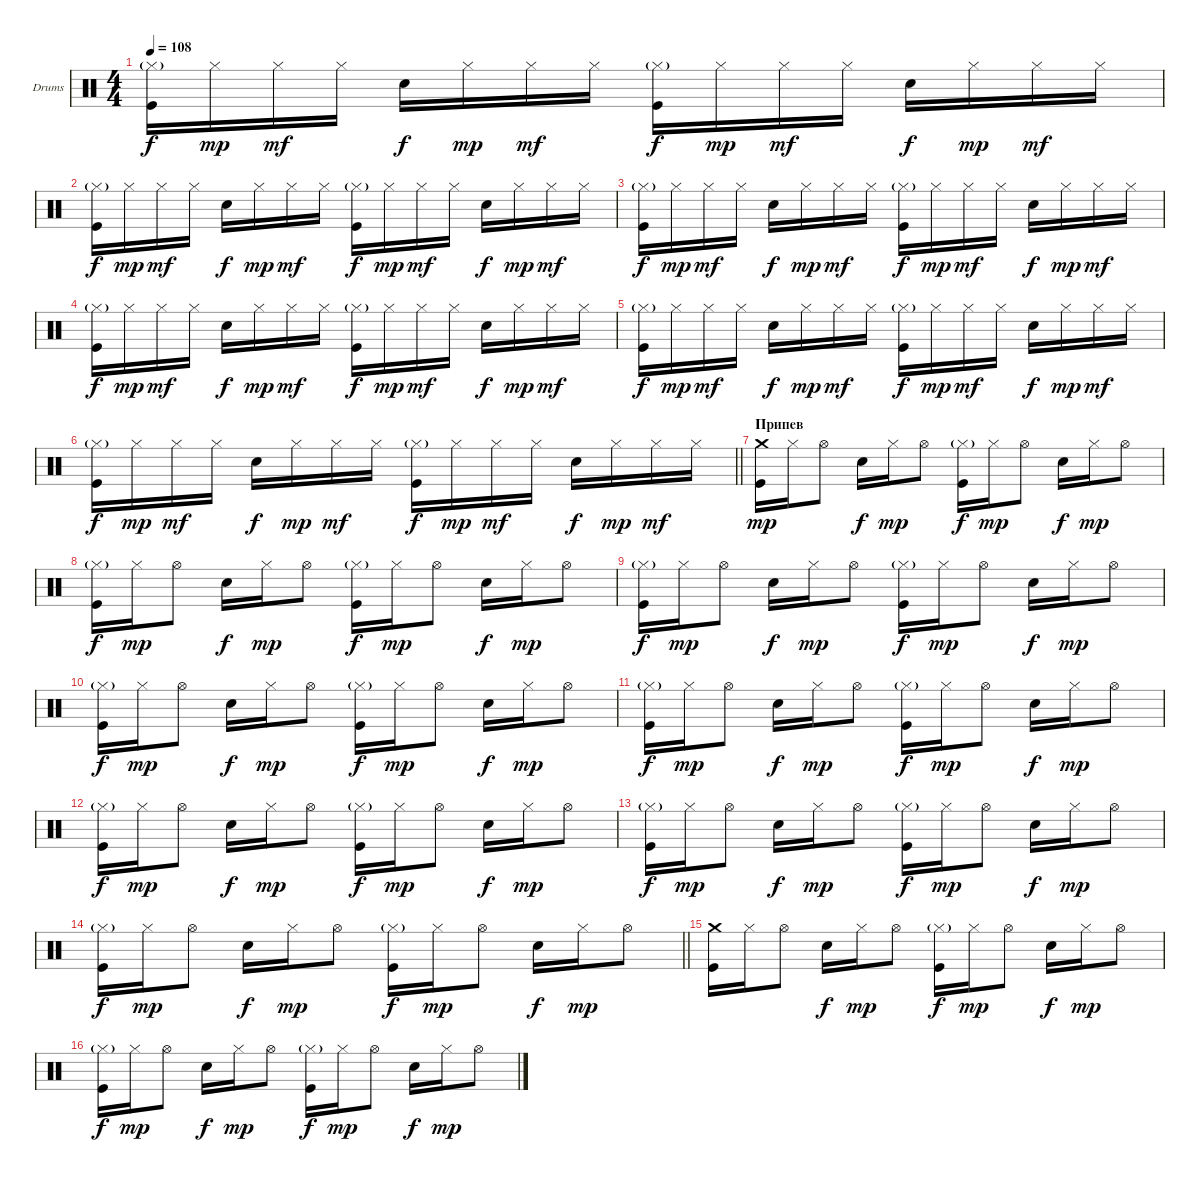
\bracketExtendMode groupsimilarinstruments
\firstSystemTrackNameOrientation horizontal
\otherSystemsTrackNameOrientation horizontal
\track ("Е. Кулаков" "Drums") {instrument percussion}
\staff {score}
\articulation defaults
\ts (4 4)
\tempo 108
\clef neutral
\ks c
("Hi-Hat (closed)"{g} "Kick (hit)").16{dy f} "Hi-Hat (closed)".16{dy mp} "Hi-Hat (closed)".16{dy mf} "Hi-Hat (closed)".16 "Snare (hit) 2".16{dy f} "Hi-Hat (closed)".16{dy mp} "Hi-Hat (closed)".16{dy mf} "Hi-Hat (closed)".16 ("Hi-Hat (closed)"{g} "Kick (hit)").16{dy f} "Hi-Hat (closed)".16{dy mp} "Hi-Hat (closed)".16{dy mf} "Hi-Hat (closed)".16 "Snare (hit) 2".16{dy f} "Hi-Hat (closed)".16{dy mp} "Hi-Hat (closed)".16{dy mf} "Hi-Hat (closed)".16 |
("Hi-Hat (closed)"{g} "Kick (hit)").16{dy f} "Hi-Hat (closed)".16{dy mp} "Hi-Hat (closed)".16{dy mf} "Hi-Hat (closed)".16 "Snare (hit) 2".16{dy f} "Hi-Hat (closed)".16{dy mp} "Hi-Hat (closed)".16{dy mf} "Hi-Hat (closed)".16 ("Hi-Hat (closed)"{g} "Kick (hit)").16{dy f} "Hi-Hat (closed)".16{dy mp} "Hi-Hat (closed)".16{dy mf} "Hi-Hat (closed)".16 "Snare (hit) 2".16{dy f} "Hi-Hat (closed)".16{dy mp} "Hi-Hat (closed)".16{dy mf} "Hi-Hat (closed)".16 |
("Hi-Hat (closed)"{g} "Kick (hit)").16{dy f} "Hi-Hat (closed)".16{dy mp} "Hi-Hat (closed)".16{dy mf} "Hi-Hat (closed)".16 "Snare (hit) 2".16{dy f} "Hi-Hat (closed)".16{dy mp} "Hi-Hat (closed)".16{dy mf} "Hi-Hat (closed)".16 ("Hi-Hat (closed)"{g} "Kick (hit)").16{dy f} "Hi-Hat (closed)".16{dy mp} "Hi-Hat (closed)".16{dy mf} "Hi-Hat (closed)".16 "Snare (hit) 2".16{dy f} "Hi-Hat (closed)".16{dy mp} "Hi-Hat (closed)".16{dy mf} "Hi-Hat (closed)".16 |
("Hi-Hat (closed)"{g} "Kick (hit)").16{dy f} "Hi-Hat (closed)".16{dy mp} "Hi-Hat (closed)".16{dy mf} "Hi-Hat (closed)".16 "Snare (hit) 2".16{dy f} "Hi-Hat (closed)".16{dy mp} "Hi-Hat (closed)".16{dy mf} "Hi-Hat (closed)".16 ("Hi-Hat (closed)"{g} "Kick (hit)").16{dy f} "Hi-Hat (closed)".16{dy mp} "Hi-Hat (closed)".16{dy mf} "Hi-Hat (closed)".16 "Snare (hit) 2".16{dy f} "Hi-Hat (closed)".16{dy mp} "Hi-Hat (closed)".16{dy mf} "Hi-Hat (closed)".16 |
("Hi-Hat (closed)"{g} "Kick (hit)").16{dy f} "Hi-Hat (closed)".16{dy mp} "Hi-Hat (closed)".16{dy mf} "Hi-Hat (closed)".16 "Snare (hit) 2".16{dy f} "Hi-Hat (closed)".16{dy mp} "Hi-Hat (closed)".16{dy mf} "Hi-Hat (closed)".16 ("Hi-Hat (closed)"{g} "Kick (hit)").16{dy f} "Hi-Hat (closed)".16{dy mp} "Hi-Hat (closed)".16{dy mf} "Hi-Hat (closed)".16 "Snare (hit) 2".16{dy f} "Hi-Hat (closed)".16{dy mp} "Hi-Hat (closed)".16{dy mf} "Hi-Hat (closed)".16 |
\barLineRight lightlight
("Hi-Hat (closed)"{g} "Kick (hit)").16{dy f} "Hi-Hat (closed)".16{dy mp} "Hi-Hat (closed)".16{dy mf} "Hi-Hat (closed)".16 "Snare (hit) 2".16{dy f} "Hi-Hat (closed)".16{dy mp} "Hi-Hat (closed)".16{dy mf} "Hi-Hat (closed)".16 ("Hi-Hat (closed)"{g} "Kick (hit)").16{dy f} "Hi-Hat (closed)".16{dy mp} "Hi-Hat (closed)".16{dy mf} "Hi-Hat (closed)".16 "Snare (hit) 2".16{dy f} "Hi-Hat (closed)".16{dy mp} "Hi-Hat (closed)".16{dy mf} "Hi-Hat (closed)".16 |
\section ("" "Припев")
("Crash medium (hit)" "Kick (hit)").16{dy mp} "Hi-Hat (closed)".16 "Hi-Hat (open)".8 "Snare (hit) 2".16{dy f} "Hi-Hat (closed)".16{dy mp} "Hi-Hat (open)".8 ("Hi-Hat (closed)"{g} "Kick (hit)").16{dy f} "Hi-Hat (closed)".16{dy mp} "Hi-Hat (open)".8 "Snare (hit) 2".16{dy f} "Hi-Hat (closed)".16{dy mp} "Hi-Hat (open)".8 |
("Hi-Hat (closed)"{g} "Kick (hit)").16{dy f} "Hi-Hat (closed)".16{dy mp} "Hi-Hat (open)".8 "Snare (hit) 2".16{dy f} "Hi-Hat (closed)".16{dy mp} "Hi-Hat (open)".8 ("Hi-Hat (closed)"{g} "Kick (hit)").16{dy f} "Hi-Hat (closed)".16{dy mp} "Hi-Hat (open)".8 "Snare (hit) 2".16{dy f} "Hi-Hat (closed)".16{dy mp} "Hi-Hat (open)".8 |
("Hi-Hat (closed)"{g} "Kick (hit)").16{dy f} "Hi-Hat (closed)".16{dy mp} "Hi-Hat (open)".8 "Snare (hit) 2".16{dy f} "Hi-Hat (closed)".16{dy mp} "Hi-Hat (open)".8 ("Hi-Hat (closed)"{g} "Kick (hit)").16{dy f} "Hi-Hat (closed)".16{dy mp} "Hi-Hat (open)".8 "Snare (hit) 2".16{dy f} "Hi-Hat (closed)".16{dy mp} "Hi-Hat (open)".8 |
("Hi-Hat (closed)"{g} "Kick (hit)").16{dy f} "Hi-Hat (closed)".16{dy mp} "Hi-Hat (open)".8 "Snare (hit) 2".16{dy f} "Hi-Hat (closed)".16{dy mp} "Hi-Hat (open)".8 ("Hi-Hat (closed)"{g} "Kick (hit)").16{dy f} "Hi-Hat (closed)".16{dy mp} "Hi-Hat (open)".8 "Snare (hit) 2".16{dy f} "Hi-Hat (closed)".16{dy mp} "Hi-Hat (open)".8 |
("Hi-Hat (closed)"{g} "Kick (hit)").16{dy f} "Hi-Hat (closed)".16{dy mp} "Hi-Hat (open)".8 "Snare (hit) 2".16{dy f} "Hi-Hat (closed)".16{dy mp} "Hi-Hat (open)".8 ("Hi-Hat (closed)"{g} "Kick (hit)").16{dy f} "Hi-Hat (closed)".16{dy mp} "Hi-Hat (open)".8 "Snare (hit) 2".16{dy f} "Hi-Hat (closed)".16{dy mp} "Hi-Hat (open)".8 |
("Hi-Hat (closed)"{g} "Kick (hit)").16{dy f} "Hi-Hat (closed)".16{dy mp} "Hi-Hat (open)".8 "Snare (hit) 2".16{dy f} "Hi-Hat (closed)".16{dy mp} "Hi-Hat (open)".8 ("Hi-Hat (closed)"{g} "Kick (hit)").16{dy f} "Hi-Hat (closed)".16{dy mp} "Hi-Hat (open)".8 "Snare (hit) 2".16{dy f} "Hi-Hat (closed)".16{dy mp} "Hi-Hat (open)".8 |
("Hi-Hat (closed)"{g} "Kick (hit)").16{dy f} "Hi-Hat (closed)".16{dy mp} "Hi-Hat (open)".8 "Snare (hit) 2".16{dy f} "Hi-Hat (closed)".16{dy mp} "Hi-Hat (open)".8 ("Hi-Hat (closed)"{g} "Kick (hit)").16{dy f} "Hi-Hat (closed)".16{dy mp} "Hi-Hat (open)".8 "Snare (hit) 2".16{dy f} "Hi-Hat (closed)".16{dy mp} "Hi-Hat (open)".8 |
\barLineRight lightlight
("Hi-Hat (closed)"{g} "Kick (hit)").16{dy f} "Hi-Hat (closed)".16{dy mp} "Hi-Hat (open)".8 "Snare (hit) 2".16{dy f} "Hi-Hat (closed)".16{dy mp} "Hi-Hat (open)".8 ("Hi-Hat (closed)"{g} "Kick (hit)").16{dy f} "Hi-Hat (closed)".16{dy mp} "Hi-Hat (open)".8 "Snare (hit) 2".16{dy f} "Hi-Hat (closed)".16{dy mp} "Hi-Hat (open)".8 |
("Crash medium (hit)" "Kick (hit)").16 "Hi-Hat (closed)".16 "Hi-Hat (open)".8 "Snare (hit) 2".16{dy f} "Hi-Hat (closed)".16{dy mp} "Hi-Hat (open)".8 ("Hi-Hat (closed)"{g} "Kick (hit)").16{dy f} "Hi-Hat (closed)".16{dy mp} "Hi-Hat (open)".8 "Snare (hit) 2".16{dy f} "Hi-Hat (closed)".16{dy mp} "Hi-Hat (open)".8 |
("Hi-Hat (closed)"{g} "Kick (hit)").16{dy f} "Hi-Hat (closed)".16{dy mp} "Hi-Hat (open)".8 "Snare (hit) 2".16{dy f} "Hi-Hat (closed)".16{dy mp} "Hi-Hat (open)".8 ("Hi-Hat (closed)"{g} "Kick (hit)").16{dy f} "Hi-Hat (closed)".16{dy mp} "Hi-Hat (open)".8 "Snare (hit) 2".16{dy f} "Hi-Hat (closed)".16{dy mp} "Hi-Hat (open)".8
